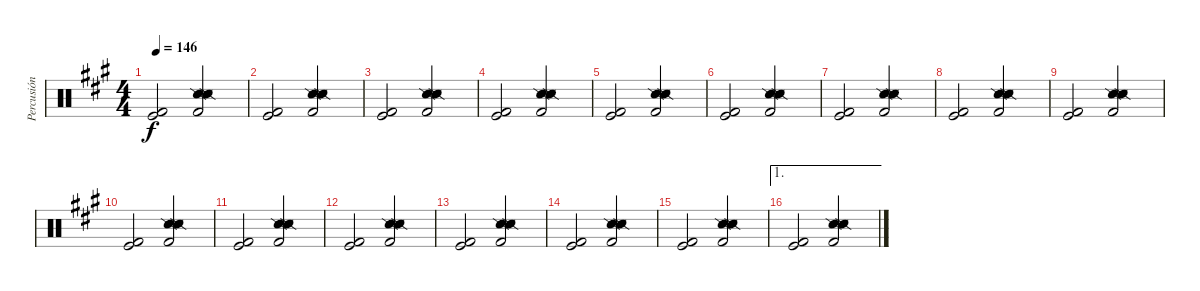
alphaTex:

\track ("Percusión" "Percusión") {instrument percussion}
\staff {score}
\articulation defaults
\ts (4 4)
\tempo 146
\clef neutral
\ks a
("Kick (hit) 2" "Kick (hit)").2{dy f} ("Snare (side stick) 2" "Metronome (hit)" "Kick (hit) 2" "Snare (side stick) 2").2 |
("Kick (hit) 2" "Kick (hit)").2 ("Snare (side stick) 2" "Metronome (hit)" "Kick (hit) 2" "Snare (side stick) 2").2 |
("Kick (hit) 2" "Kick (hit)").2 ("Snare (side stick) 2" "Metronome (hit)" "Kick (hit) 2" "Snare (side stick) 2").2 |
("Kick (hit) 2" "Kick (hit)").2 ("Snare (side stick) 2" "Metronome (hit)" "Kick (hit) 2" "Snare (side stick) 2").2 |
("Kick (hit) 2" "Kick (hit)").2 ("Snare (side stick) 2" "Metronome (hit)" "Kick (hit) 2" "Snare (side stick) 2").2 |
("Kick (hit) 2" "Kick (hit)").2 ("Snare (side stick) 2" "Metronome (hit)" "Kick (hit) 2" "Snare (side stick) 2").2 |
("Kick (hit) 2" "Kick (hit)").2 ("Snare (side stick) 2" "Metronome (hit)" "Kick (hit) 2" "Snare (side stick) 2").2 |
("Kick (hit) 2" "Kick (hit)").2 ("Snare (side stick) 2" "Metronome (hit)" "Kick (hit) 2" "Snare (side stick) 2").2 |
("Kick (hit) 2" "Kick (hit)").2 ("Snare (side stick) 2" "Metronome (hit)" "Kick (hit) 2" "Snare (side stick) 2").2 |
("Kick (hit) 2" "Kick (hit)").2 ("Snare (side stick) 2" "Metronome (hit)" "Kick (hit) 2" "Snare (side stick) 2").2 |
("Kick (hit) 2" "Kick (hit)").2 ("Snare (side stick) 2" "Metronome (hit)" "Kick (hit) 2" "Snare (side stick) 2").2 |
("Kick (hit) 2" "Kick (hit)").2 ("Snare (side stick) 2" "Metronome (hit)" "Kick (hit) 2" "Snare (side stick) 2").2 |
("Kick (hit) 2" "Kick (hit)").2 ("Snare (side stick) 2" "Metronome (hit)" "Kick (hit) 2" "Snare (side stick) 2").2 |
("Kick (hit) 2" "Kick (hit)").2 ("Snare (side stick) 2" "Metronome (hit)" "Kick (hit) 2" "Snare (side stick) 2").2 |
("Kick (hit) 2" "Kick (hit)").2 ("Snare (side stick) 2" "Metronome (hit)" "Kick (hit) 2" "Snare (side stick) 2").2 |
\ae 1
("Kick (hit) 2" "Kick (hit)").2 ("Snare (side stick) 2" "Metronome (hit)" "Kick (hit) 2" "Snare (side stick) 2").2
